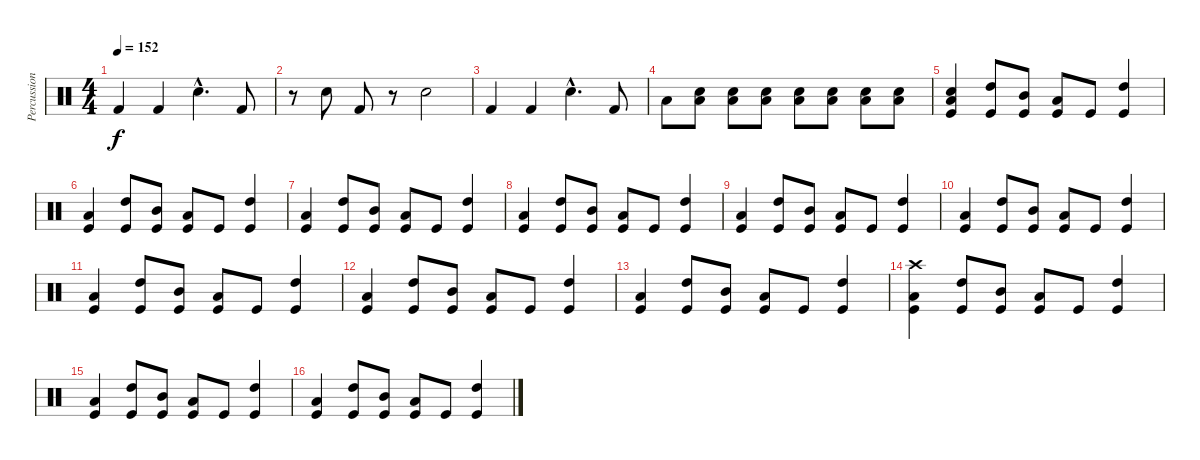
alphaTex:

\track ("Percussion" "Percussion") {instrument percussion}
\staff {score}
\articulation defaults
\ts (4 4)
\tempo 152
\clef neutral
\ks c "Kick (hit) 2".4{dy f} "Kick (hit) 2".4 "Snare (hit) 2"{hac}.4{d} "Kick (hit) 2".8
|
r.8 "Snare (hit) 2".8 "Kick (hit) 2".8 r.8 "Snare (hit) 2".2 |
"Kick (hit) 2".4 "Kick (hit) 2".4 "Snare (hit) 2"{hac}.4{d} "Kick (hit) 2".8 |
"Low Floor Tom (hit)".8 ("Snare (hit) 2" "Low Tom (hit)").8 ("Snare (hit) 2" "Low Tom (hit)").8 ("Snare (hit) 2" "Low Tom (hit)").8 ("Snare (hit) 2" "Low Tom (hit)").8 ("Snare (hit) 2" "Low Floor Tom (hit)").8 ("Snare (hit) 2" "Low Floor Tom (hit)").8 ("Snare (hit) 2" "Low Floor Tom (hit)").8 |
("Snare (hit) 2" "Low Floor Tom (hit)" "Kick (hit)").4 ("High Tom (hit)" "Kick (hit)").8 ("Mid Tom (hit)" "Kick (hit)").8 ("Low Tom (hit)" "Kick (hit)").8 "Kick (hit)".8 ("High Tom (hit)" "Kick (hit)").4 |
("Low Floor Tom (hit)" "Kick (hit)").4 ("High Tom (hit)" "Kick (hit)").8 ("Mid Tom (hit)" "Kick (hit)").8 ("Low Tom (hit)" "Kick (hit)").8 "Kick (hit)".8 ("High Tom (hit)" "Kick (hit)").4 |
("Low Floor Tom (hit)" "Kick (hit)").4 ("High Tom (hit)" "Kick (hit)").8 ("Mid Tom (hit)" "Kick (hit)").8 ("Low Tom (hit)" "Kick (hit)").8 "Kick (hit)".8 ("High Tom (hit)" "Kick (hit)").4 |
("Low Floor Tom (hit)" "Kick (hit)").4 ("High Tom (hit)" "Kick (hit)").8 ("Mid Tom (hit)" "Kick (hit)").8 ("Low Tom (hit)" "Kick (hit)").8 "Kick (hit)".8 ("High Tom (hit)" "Kick (hit)").4 |
("Low Floor Tom (hit)" "Kick (hit)").4 ("High Tom (hit)" "Kick (hit)").8 ("Mid Tom (hit)" "Kick (hit)").8 ("Low Tom (hit)" "Kick (hit)").8 "Kick (hit)".8 ("High Tom (hit)" "Kick (hit)").4 |
("Low Floor Tom (hit)" "Kick (hit)").4 ("High Tom (hit)" "Kick (hit)").8 ("Mid Tom (hit)" "Kick (hit)").8 ("Low Tom (hit)" "Kick (hit)").8 "Kick (hit)".8 ("High Tom (hit)" "Kick (hit)").4 |
("Low Floor Tom (hit)" "Kick (hit)").4 ("High Tom (hit)" "Kick (hit)").8 ("Mid Tom (hit)" "Kick (hit)").8 ("Low Tom (hit)" "Kick (hit)").8 "Kick (hit)".8 ("High Tom (hit)" "Kick (hit)").4 |
("Low Floor Tom (hit)" "Kick (hit)").4 ("High Tom (hit)" "Kick (hit)").8 ("Mid Tom (hit)" "Kick (hit)").8 ("Low Tom (hit)" "Kick (hit)").8 "Kick (hit)".8 ("High Tom (hit)" "Kick (hit)").4 |
("Low Floor Tom (hit)" "Kick (hit)").4 ("High Tom (hit)" "Kick (hit)").8 ("Mid Tom (hit)" "Kick (hit)").8 ("Low Tom (hit)" "Kick (hit)").8 "Kick (hit)".8 ("High Tom (hit)" "Kick (hit)").4 |
("Crash high (hit)" "Low Floor Tom (hit)" "Kick (hit)").4 ("High Tom (hit)" "Kick (hit)").8 ("Mid Tom (hit)" "Kick (hit)").8 ("Low Tom (hit)" "Kick (hit)").8 "Kick (hit)".8 ("High Tom (hit)" "Kick (hit)").4 |
("Low Floor Tom (hit)" "Kick (hit)").4 ("High Tom (hit)" "Kick (hit)").8 ("Mid Tom (hit)" "Kick (hit)").8 ("Low Tom (hit)" "Kick (hit)").8 "Kick (hit)".8 ("High Tom (hit)" "Kick (hit)").4 |
("Low Floor Tom (hit)" "Kick (hit)").4 ("High Tom (hit)" "Kick (hit)").8 ("Mid Tom (hit)" "Kick (hit)").8 ("Low Tom (hit)" "Kick (hit)").8 "Kick (hit)".8 ("High Tom (hit)" "Kick (hit)").4
